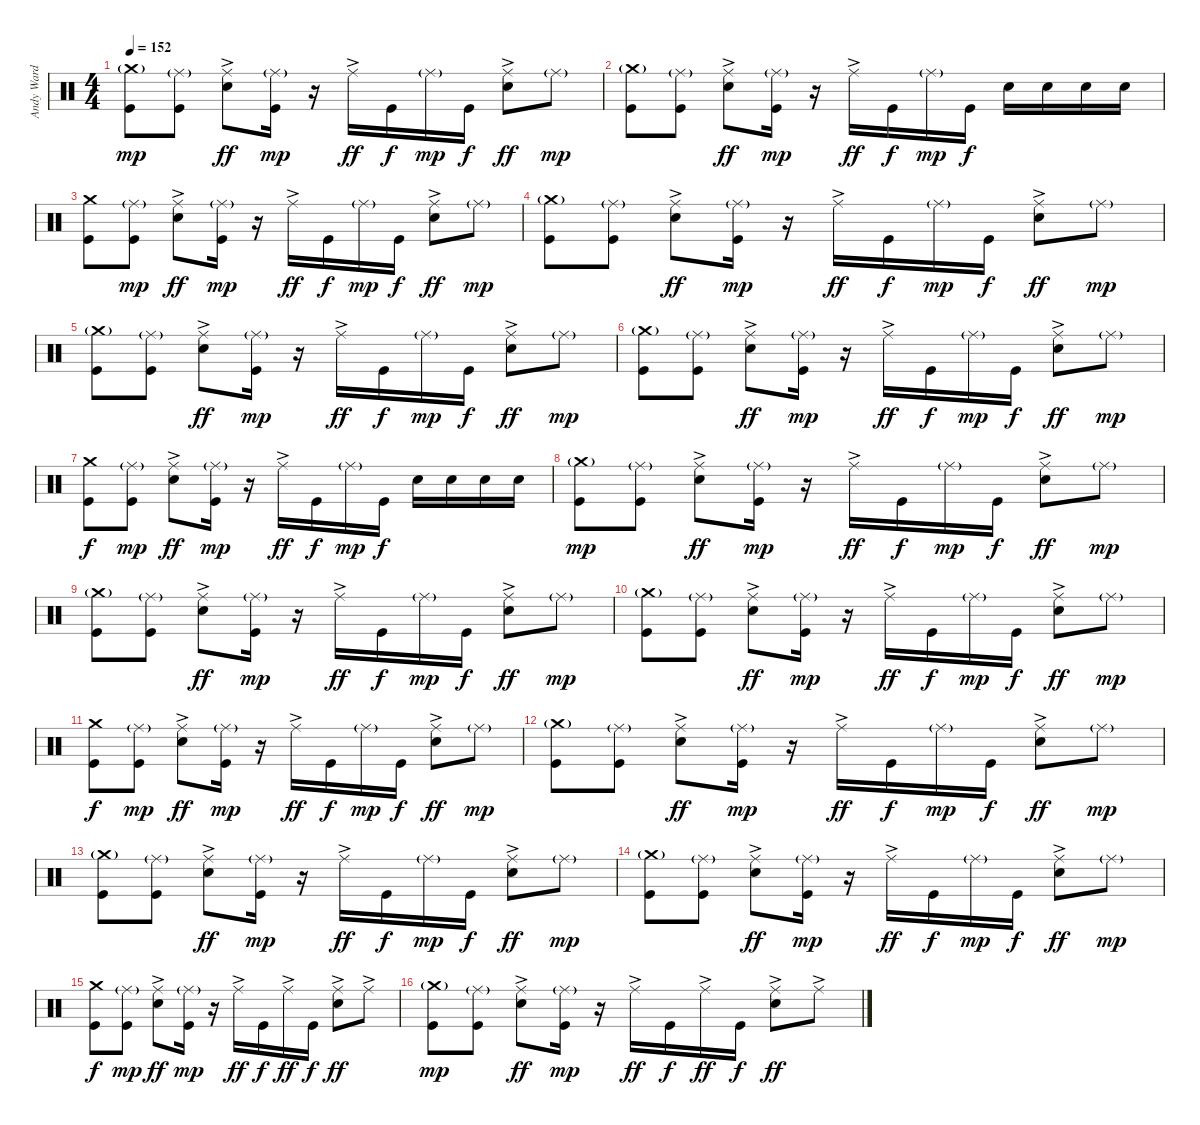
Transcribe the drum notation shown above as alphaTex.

\track ("Andy Ward (Drums)" "Andy Ward ") {instrument percussion}
\staff {score}
\articulation defaults
\ts (4 4)
\tempo 152
\clef neutral
\ks c
("Crash medium (hit)"{g} "Kick (hit)").8{dy mp} ("Ride (middle)"{g} "Kick (hit)").8 ("Ride (middle)"{ac} "Electric Snare (hit)").8{dy ff} ("Ride (middle)"{g} "Kick (hit)").16{dy mp} r.16 "Ride (middle)"{ac}.16{dy ff} "Kick (hit)".16{dy f} "Ride (middle)"{g}.16{dy mp} "Kick (hit)".16{dy f} ("Ride (middle)"{ac} "Electric Snare (hit)").8{dy ff} "Ride (middle)"{g}.8{dy mp} |
("Crash medium (hit)"{g} "Kick (hit)").8 ("Ride (middle)"{g} "Kick (hit)").8 ("Ride (middle)"{ac} "Electric Snare (hit)").8{dy ff} ("Ride (middle)"{g} "Kick (hit)").16{dy mp} r.16 "Ride (middle)"{ac}.16{dy ff} "Kick (hit)".16{dy f} "Ride (middle)"{g}.16{dy mp} "Kick (hit)".16{dy f} "Electric Snare (hit)".16 "Electric Snare (hit)".16 "Electric Snare (hit)".16 "Electric Snare (hit)".16 |
("Crash medium (hit)" "Kick (hit)").8 ("Ride (middle)"{g} "Kick (hit)").8{dy mp} ("Ride (middle)"{ac} "Electric Snare (hit)").8{dy ff} ("Ride (middle)"{g} "Kick (hit)").16{dy mp} r.16 "Ride (middle)"{ac}.16{dy ff} "Kick (hit)".16{dy f} "Ride (middle)"{g}.16{dy mp} "Kick (hit)".16{dy f} ("Ride (middle)"{ac} "Electric Snare (hit)").8{dy ff} "Ride (middle)"{g}.8{dy mp} |
("Crash medium (hit)"{g} "Kick (hit)").8 ("Ride (middle)"{g} "Kick (hit)").8 ("Ride (middle)"{ac} "Electric Snare (hit)").8{dy ff} ("Ride (middle)"{g} "Kick (hit)").16{dy mp} r.16 "Ride (middle)"{ac}.16{dy ff} "Kick (hit)".16{dy f} "Ride (middle)"{g}.16{dy mp} "Kick (hit)".16{dy f} ("Ride (middle)"{ac} "Electric Snare (hit)").8{dy ff} "Ride (middle)"{g}.8{dy mp} |
("Crash medium (hit)"{g} "Kick (hit)").8 ("Ride (middle)"{g} "Kick (hit)").8 ("Ride (middle)"{ac} "Electric Snare (hit)").8{dy ff} ("Ride (middle)"{g} "Kick (hit)").16{dy mp} r.16 "Ride (middle)"{ac}.16{dy ff} "Kick (hit)".16{dy f} "Ride (middle)"{g}.16{dy mp} "Kick (hit)".16{dy f} ("Ride (middle)"{ac} "Electric Snare (hit)").8{dy ff} "Ride (middle)"{g}.8{dy mp} |
("Crash medium (hit)"{g} "Kick (hit)").8 ("Ride (middle)"{g} "Kick (hit)").8 ("Ride (middle)"{ac} "Electric Snare (hit)").8{dy ff} ("Ride (middle)"{g} "Kick (hit)").16{dy mp} r.16 "Ride (middle)"{ac}.16{dy ff} "Kick (hit)".16{dy f} "Ride (middle)"{g}.16{dy mp} "Kick (hit)".16{dy f} ("Ride (middle)"{ac} "Electric Snare (hit)").8{dy ff} "Ride (middle)"{g}.8{dy mp} |
("Crash medium (hit)" "Kick (hit)").8{dy f} ("Ride (middle)"{g} "Kick (hit)").8{dy mp} ("Ride (middle)"{ac} "Electric Snare (hit)").8{dy ff} ("Ride (middle)"{g} "Kick (hit)").16{dy mp} r.16 "Ride (middle)"{ac}.16{dy ff} "Kick (hit)".16{dy f} "Ride (middle)"{g}.16{dy mp} "Kick (hit)".16{dy f} "Electric Snare (hit)".16 "Electric Snare (hit)".16 "Electric Snare (hit)".16 "Electric Snare (hit)".16 |
("Crash medium (hit)"{g} "Kick (hit)").8{dy mp} ("Ride (middle)"{g} "Kick (hit)").8 ("Ride (middle)"{ac} "Electric Snare (hit)").8{dy ff} ("Ride (middle)"{g} "Kick (hit)").16{dy mp} r.16 "Ride (middle)"{ac}.16{dy ff} "Kick (hit)".16{dy f} "Ride (middle)"{g}.16{dy mp} "Kick (hit)".16{dy f} ("Ride (middle)"{ac} "Electric Snare (hit)").8{dy ff} "Ride (middle)"{g}.8{dy mp} |
("Crash medium (hit)"{g} "Kick (hit)").8 ("Ride (middle)"{g} "Kick (hit)").8 ("Ride (middle)"{ac} "Electric Snare (hit)").8{dy ff} ("Ride (middle)"{g} "Kick (hit)").16{dy mp} r.16 "Ride (middle)"{ac}.16{dy ff} "Kick (hit)".16{dy f} "Ride (middle)"{g}.16{dy mp} "Kick (hit)".16{dy f} ("Ride (middle)"{ac} "Electric Snare (hit)").8{dy ff} "Ride (middle)"{g}.8{dy mp} |
("Crash medium (hit)"{g} "Kick (hit)").8 ("Ride (middle)"{g} "Kick (hit)").8 ("Ride (middle)"{ac} "Electric Snare (hit)").8{dy ff} ("Ride (middle)"{g} "Kick (hit)").16{dy mp} r.16 "Ride (middle)"{ac}.16{dy ff} "Kick (hit)".16{dy f} "Ride (middle)"{g}.16{dy mp} "Kick (hit)".16{dy f} ("Ride (middle)"{ac} "Electric Snare (hit)").8{dy ff} "Ride (middle)"{g}.8{dy mp} |
("Crash medium (hit)" "Kick (hit)").8{dy f} ("Ride (middle)"{g} "Kick (hit)").8{dy mp} ("Ride (middle)"{ac} "Electric Snare (hit)").8{dy ff} ("Ride (middle)"{g} "Kick (hit)").16{dy mp} r.16 "Ride (middle)"{ac}.16{dy ff} "Kick (hit)".16{dy f} "Ride (middle)"{g}.16{dy mp} "Kick (hit)".16{dy f} ("Ride (middle)"{ac} "Electric Snare (hit)").8{dy ff} "Ride (middle)"{g}.8{dy mp} |
("Crash medium (hit)"{g} "Kick (hit)").8 ("Ride (middle)"{g} "Kick (hit)").8 ("Ride (middle)"{ac} "Electric Snare (hit)").8{dy ff} ("Ride (middle)"{g} "Kick (hit)").16{dy mp} r.16 "Ride (middle)"{ac}.16{dy ff} "Kick (hit)".16{dy f} "Ride (middle)"{g}.16{dy mp} "Kick (hit)".16{dy f} ("Ride (middle)"{ac} "Electric Snare (hit)").8{dy ff} "Ride (middle)"{g}.8{dy mp} |
("Crash medium (hit)"{g} "Kick (hit)").8 ("Ride (middle)"{g} "Kick (hit)").8 ("Ride (middle)"{ac} "Electric Snare (hit)").8{dy ff} ("Ride (middle)"{g} "Kick (hit)").16{dy mp} r.16 "Ride (middle)"{ac}.16{dy ff} "Kick (hit)".16{dy f} "Ride (middle)"{g}.16{dy mp} "Kick (hit)".16{dy f} ("Ride (middle)"{ac} "Electric Snare (hit)").8{dy ff} "Ride (middle)"{g}.8{dy mp} |
("Crash medium (hit)"{g} "Kick (hit)").8 ("Ride (middle)"{g} "Kick (hit)").8 ("Ride (middle)"{ac} "Electric Snare (hit)").8{dy ff} ("Ride (middle)"{g} "Kick (hit)").16{dy mp} r.16 "Ride (middle)"{ac}.16{dy ff} "Kick (hit)".16{dy f} "Ride (middle)"{g}.16{dy mp} "Kick (hit)".16{dy f} ("Ride (middle)"{ac} "Electric Snare (hit)").8{dy ff} "Ride (middle)"{g}.8{dy mp} |
("Crash medium (hit)" "Kick (hit)").8{dy f} ("Ride (middle)"{g} "Kick (hit)").8{dy mp} ("Ride (middle)"{ac} "Electric Snare (hit)").8{dy ff} ("Ride (middle)"{g} "Kick (hit)").16{dy mp} r.16 "Ride (middle)"{ac}.16{dy ff} "Kick (hit)".16{dy f} "Ride (middle)"{ac}.16{dy ff} "Kick (hit)".16{dy f} ("Ride (middle)"{ac} "Electric Snare (hit)").8{dy ff} "Ride (middle)"{ac}.8 |
("Crash medium (hit)"{g} "Kick (hit)").8{dy mp} ("Ride (middle)"{g} "Kick (hit)").8 ("Ride (middle)"{ac} "Electric Snare (hit)").8{dy ff} ("Ride (middle)"{g} "Kick (hit)").16{dy mp} r.16 "Ride (middle)"{ac}.16{dy ff} "Kick (hit)".16{dy f} "Ride (middle)"{ac}.16{dy ff} "Kick (hit)".16{dy f} ("Ride (middle)"{ac} "Electric Snare (hit)").8{dy ff} "Ride (middle)"{ac}.8
